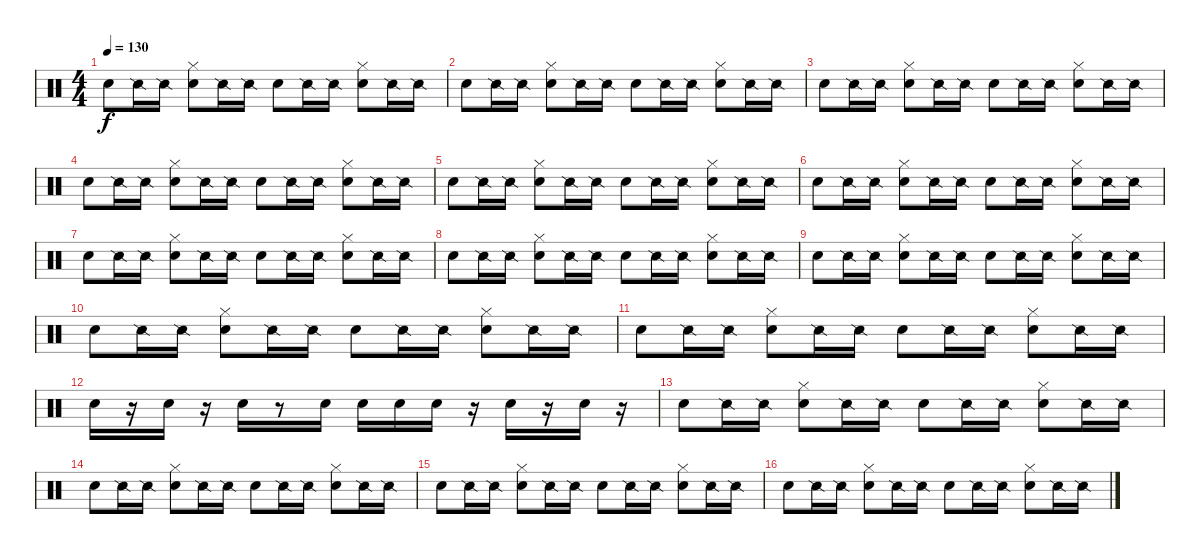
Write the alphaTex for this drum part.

\track "" {instrument percussion}
\staff {score}
\articulation defaults
\ts (4 4)
\tempo 130
\clef neutral
\ks c "Snare (hit)".8{dy f} "Snare (side stick) 2".16 "Snare (side stick) 2".16
("Snare (hit)" "Hi-Hat (closed)").8 "Snare (side stick) 2".16 "Snare (side stick) 2".16 "Snare (hit)".8 "Snare (side stick) 2".16 "Snare (side stick) 2".16 ("Snare (hit)" "Hi-Hat (closed)").8 "Snare (side stick) 2".16 "Snare (side stick) 2".16 |
"Snare (hit)".8 "Snare (side stick) 2".16 "Snare (side stick) 2".16 ("Snare (hit)" "Hi-Hat (closed)").8 "Snare (side stick) 2".16 "Snare (side stick) 2".16 "Snare (hit)".8 "Snare (side stick) 2".16 "Snare (side stick) 2".16 ("Snare (hit)" "Hi-Hat (closed)").8 "Snare (side stick) 2".16 "Snare (side stick) 2".16 |
"Snare (hit)".8 "Snare (side stick) 2".16 "Snare (side stick) 2".16 ("Snare (hit)" "Hi-Hat (closed)").8 "Snare (side stick) 2".16 "Snare (side stick) 2".16 "Snare (hit)".8 "Snare (side stick) 2".16 "Snare (side stick) 2".16 ("Snare (hit)" "Hi-Hat (closed)").8 "Snare (side stick) 2".16 "Snare (side stick) 2".16 |
"Snare (hit)".8 "Snare (side stick) 2".16 "Snare (side stick) 2".16 ("Snare (hit)" "Hi-Hat (closed)").8 "Snare (side stick) 2".16 "Snare (side stick) 2".16 "Snare (hit)".8 "Snare (side stick) 2".16 "Snare (side stick) 2".16 ("Snare (hit)" "Hi-Hat (closed)").8 "Snare (side stick) 2".16 "Snare (side stick) 2".16 |
"Snare (hit)".8 "Snare (side stick) 2".16 "Snare (side stick) 2".16 ("Snare (hit)" "Hi-Hat (closed)").8 "Snare (side stick) 2".16 "Snare (side stick) 2".16 "Snare (hit)".8 "Snare (side stick) 2".16 "Snare (side stick) 2".16 ("Snare (hit)" "Hi-Hat (closed)").8 "Snare (side stick) 2".16 "Snare (side stick) 2".16 |
"Snare (hit)".8 "Snare (side stick) 2".16 "Snare (side stick) 2".16 ("Snare (hit)" "Hi-Hat (closed)").8 "Snare (side stick) 2".16 "Snare (side stick) 2".16 "Snare (hit)".8 "Snare (side stick) 2".16 "Snare (side stick) 2".16 ("Snare (hit)" "Hi-Hat (closed)").8 "Snare (side stick) 2".16 "Snare (side stick) 2".16 |
"Snare (hit)".8 "Snare (side stick) 2".16 "Snare (side stick) 2".16 ("Snare (hit)" "Hi-Hat (closed)").8 "Snare (side stick) 2".16 "Snare (side stick) 2".16 "Snare (hit)".8 "Snare (side stick) 2".16 "Snare (side stick) 2".16 ("Snare (hit)" "Hi-Hat (closed)").8 "Snare (side stick) 2".16 "Snare (side stick) 2".16 |
"Snare (hit)".8 "Snare (side stick) 2".16 "Snare (side stick) 2".16 ("Snare (hit)" "Hi-Hat (closed)").8 "Snare (side stick) 2".16 "Snare (side stick) 2".16 "Snare (hit)".8 "Snare (side stick) 2".16 "Snare (side stick) 2".16 ("Snare (hit)" "Hi-Hat (closed)").8 "Snare (side stick) 2".16 "Snare (side stick) 2".16 |
"Snare (hit)".8 "Snare (side stick) 2".16 "Snare (side stick) 2".16 ("Snare (hit)" "Hi-Hat (closed)").8 "Snare (side stick) 2".16 "Snare (side stick) 2".16 "Snare (hit)".8 "Snare (side stick) 2".16 "Snare (side stick) 2".16 ("Snare (hit)" "Hi-Hat (closed)").8 "Snare (side stick) 2".16 "Snare (side stick) 2".16 |
"Snare (hit)".8 "Snare (side stick) 2".16 "Snare (side stick) 2".16 ("Snare (hit)" "Hi-Hat (closed)").8 "Snare (side stick) 2".16 "Snare (side stick) 2".16 "Snare (hit)".8 "Snare (side stick) 2".16 "Snare (side stick) 2".16 ("Snare (hit)" "Hi-Hat (closed)").8 "Snare (side stick) 2".16 "Snare (side stick) 2".16 |
"Snare (hit)".8 "Snare (side stick) 2".16 "Snare (side stick) 2".16 ("Snare (hit)" "Hi-Hat (closed)").8 "Snare (side stick) 2".16 "Snare (side stick) 2".16 "Snare (hit)".8 "Snare (side stick) 2".16 "Snare (side stick) 2".16 ("Snare (hit)" "Hi-Hat (closed)").8 "Snare (side stick) 2".16 "Snare (side stick) 2".16 |
"Snare (hit)".16 r.16 "Snare (hit)".16 r.16 "Snare (hit)".16 r.8 "Snare (hit)".16 "Snare (hit)".16 "Snare (hit)".16 "Snare (hit)".16 r.16 "Snare (hit)".16 r.16 "Snare (hit)".16 r.16 |
"Snare (hit)".8 "Snare (side stick) 2".16 "Snare (side stick) 2".16 ("Snare (hit)" "Hi-Hat (closed)").8 "Snare (side stick) 2".16 "Snare (side stick) 2".16 "Snare (hit)".8 "Snare (side stick) 2".16 "Snare (side stick) 2".16 ("Snare (hit)" "Hi-Hat (closed)").8 "Snare (side stick) 2".16 "Snare (side stick) 2".16 |
"Snare (hit)".8 "Snare (side stick) 2".16 "Snare (side stick) 2".16 ("Snare (hit)" "Hi-Hat (closed)").8 "Snare (side stick) 2".16 "Snare (side stick) 2".16 "Snare (hit)".8 "Snare (side stick) 2".16 "Snare (side stick) 2".16 ("Snare (hit)" "Hi-Hat (closed)").8 "Snare (side stick) 2".16 "Snare (side stick) 2".16 |
"Snare (hit)".8 "Snare (side stick) 2".16 "Snare (side stick) 2".16 ("Snare (hit)" "Hi-Hat (closed)").8 "Snare (side stick) 2".16 "Snare (side stick) 2".16 "Snare (hit)".8 "Snare (side stick) 2".16 "Snare (side stick) 2".16 ("Snare (hit)" "Hi-Hat (closed)").8 "Snare (side stick) 2".16 "Snare (side stick) 2".16 |
"Snare (hit)".8 "Snare (side stick) 2".16 "Snare (side stick) 2".16 ("Snare (hit)" "Hi-Hat (closed)").8 "Snare (side stick) 2".16 "Snare (side stick) 2".16 "Snare (hit)".8 "Snare (side stick) 2".16 "Snare (side stick) 2".16 ("Snare (hit)" "Hi-Hat (closed)").8 "Snare (side stick) 2".16 "Snare (side stick) 2".16
